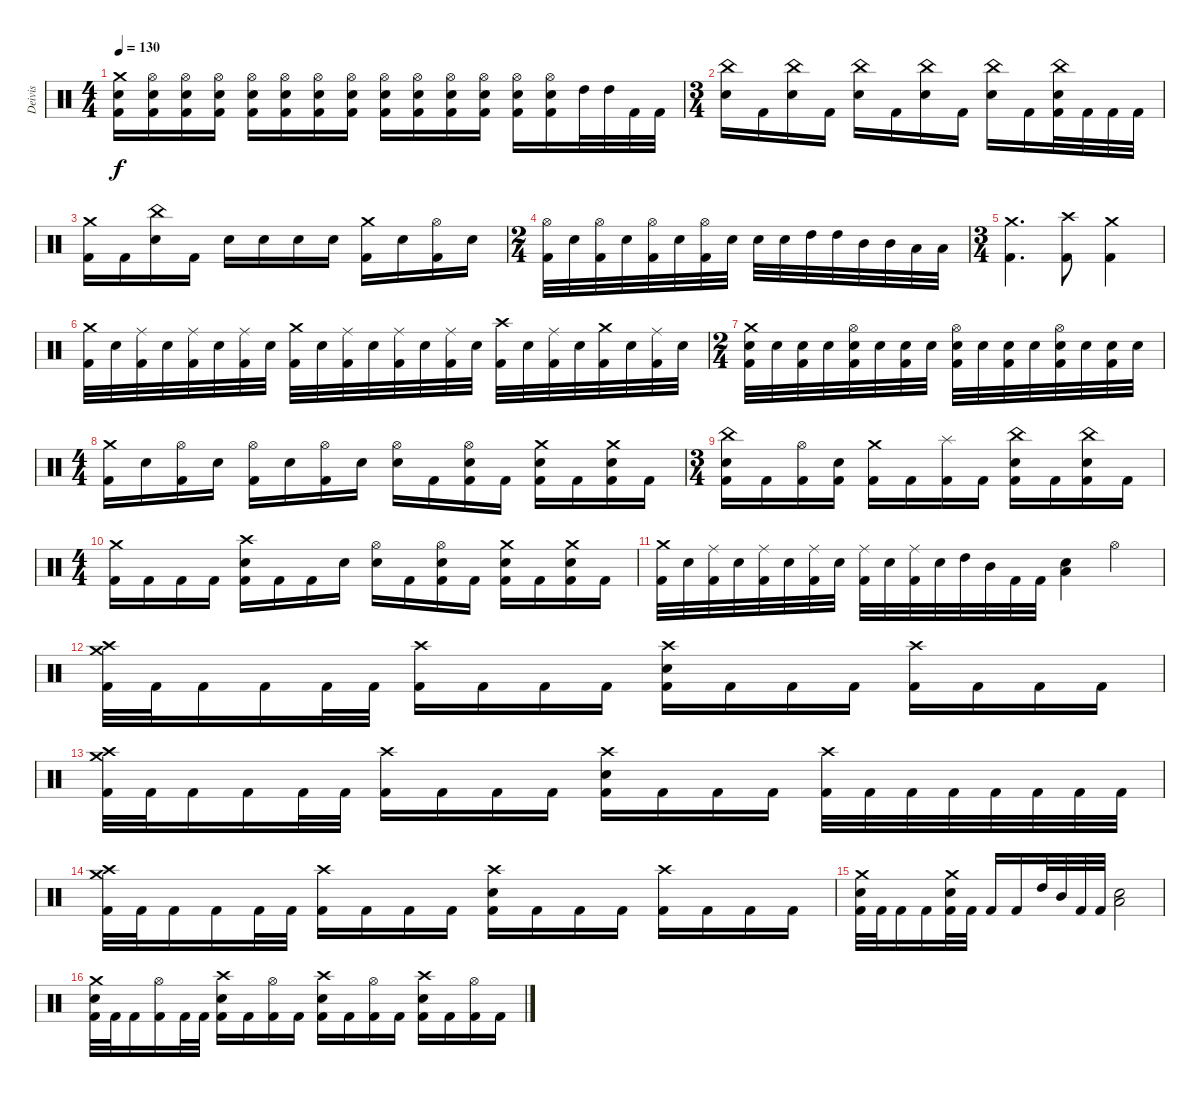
\track ("Deivis" "Deivis") {instrument percussion}
\staff {score}
\articulation defaults
\ts (4 4)
\tempo 130
\clef neutral
\ks c
("Crash medium (hit)" "Electric Snare (hit)" "Kick (hit) 2").16{dy f} ("Hi-Hat (open)" "Electric Snare (hit)" "Kick (hit) 2").16 ("Hi-Hat (open)" "Electric Snare (hit)" "Kick (hit) 2").16 ("Hi-Hat (open)" "Electric Snare (hit)" "Kick (hit) 2").16 ("Hi-Hat (open)" "Electric Snare (hit)" "Kick (hit) 2").16 ("Hi-Hat (open)" "Electric Snare (hit)" "Kick (hit) 2").16 ("Hi-Hat (open)" "Electric Snare (hit)" "Kick (hit) 2").16 ("Hi-Hat (open)" "Electric Snare (hit)" "Kick (hit) 2").16 ("Hi-Hat (open)" "Electric Snare (hit)" "Kick (hit) 2").16 ("Hi-Hat (open)" "Electric Snare (hit)" "Kick (hit) 2").16 ("Hi-Hat (open)" "Electric Snare (hit)" "Kick (hit) 2").16 ("Hi-Hat (open)" "Electric Snare (hit)" "Kick (hit) 2").16 ("Hi-Hat (open)" "Electric Snare (hit)" "Kick (hit) 2").16 ("Hi-Hat (open)" "Electric Snare (hit)" "Kick (hit) 2").16 "High Tom (hit)".32 "High Tom (hit)".32 "Kick (hit) 2".32 "Kick (hit) 2".32 |
\ts (3 4)
("China (hit)" "Electric Snare (hit)").16 "Kick (hit) 2".16 ("China (hit)" "Electric Snare (hit)").16 "Kick (hit) 2".16 ("China (hit)" "Electric Snare (hit)").16 "Kick (hit) 2".16 ("China (hit)" "Electric Snare (hit)").16 "Kick (hit) 2".16 ("China (hit)" "Electric Snare (hit)").16 "Kick (hit) 2".16 ("China (hit)" "Electric Snare (hit)" "Kick (hit) 2").32 "Kick (hit) 2".32 "Kick (hit) 2".32 "Kick (hit) 2".32 |
("Crash medium (hit)" "Kick (hit) 2").16 "Kick (hit) 2".16 ("China (hit)" "Electric Snare (hit)").16 "Kick (hit) 2".16 "Electric Snare (hit)".16 "Electric Snare (hit)".16 "Electric Snare (hit)".16 "Electric Snare (hit)".16 ("Crash medium (hit)" "Kick (hit) 2").16 "Electric Snare (hit)".16 ("Hi-Hat (open)" "Kick (hit) 2").16 "Electric Snare (hit)".16 |
\ts (2 4)
("Hi-Hat (open)" "Kick (hit) 2").32 "Electric Snare (hit)".32 ("Hi-Hat (open)" "Kick (hit) 2").32 "Electric Snare (hit)".32 ("Hi-Hat (open)" "Kick (hit) 2").32 "Electric Snare (hit)".32 ("Hi-Hat (open)" "Kick (hit) 2").32 "Electric Snare (hit)".32 "Electric Snare (hit)".32 "Electric Snare (hit)".32 "High Tom (hit)".32 "High Tom (hit)".32 "Mid Tom (hit)".32 "Mid Tom (hit)".32 "Low Tom (hit)".32 "Low Tom (hit)".32 |
\ts (3 4)
("Crash medium (hit)" "Kick (hit) 2").4{d} ("Crash high (hit)" "Kick (hit) 2").8 ("Crash medium (hit)" "Kick (hit) 2").4 |
("Crash medium (hit)" "Kick (hit) 2").32 "Electric Snare (hit)".32 ("Ride (middle)" "Kick (hit) 2").32 "Electric Snare (hit)".32 ("Ride (middle)" "Kick (hit) 2").32 "Electric Snare (hit)".32 ("Ride (middle)" "Kick (hit) 2").32 "Electric Snare (hit)".32 ("Crash medium (hit)" "Kick (hit) 2").32 "Electric Snare (hit)".32 ("Ride (middle)" "Kick (hit) 2").32 "Electric Snare (hit)".32 ("Ride (middle)" "Kick (hit) 2").32 "Electric Snare (hit)".32 ("Ride (middle)" "Kick (hit) 2").32 "Electric Snare (hit)".32 ("Crash high (hit)" "Kick (hit) 2").32 "Electric Snare (hit)".32 ("Ride (middle)" "Kick (hit) 2").32 "Electric Snare (hit)".32 ("Crash medium (hit)" "Kick (hit) 2").32 "Electric Snare (hit)".32 ("Ride (middle)" "Kick (hit) 2").32 "Electric Snare (hit)".32 |
\ts (2 4)
("Crash medium (hit)" "Electric Snare (hit)" "Kick (hit) 2").32 "Electric Snare (hit)".32 ("Electric Snare (hit)" "Kick (hit) 2").32 "Electric Snare (hit)".32 ("Hi-Hat (open)" "Electric Snare (hit)" "Kick (hit) 2").32 "Electric Snare (hit)".32 ("Electric Snare (hit)" "Kick (hit) 2").32 "Electric Snare (hit)".32 ("Hi-Hat (open)" "Electric Snare (hit)" "Kick (hit) 2").32 "Electric Snare (hit)".32 ("Electric Snare (hit)" "Kick (hit) 2").32 "Electric Snare (hit)".32 ("Hi-Hat (open)" "Electric Snare (hit)" "Kick (hit) 2").32 "Electric Snare (hit)".32 ("Electric Snare (hit)" "Kick (hit) 2").32 "Electric Snare (hit)".32 |
\ts (4 4)
("Crash medium (hit)" "Kick (hit) 2").16 "Electric Snare (hit)".16 ("Hi-Hat (open)" "Kick (hit) 2").16 "Electric Snare (hit)".16 ("Hi-Hat (open)" "Kick (hit) 2").16 "Electric Snare (hit)".16 ("Hi-Hat (open)" "Kick (hit) 2").16 "Electric Snare (hit)".16 ("Hi-Hat (open)" "Electric Snare (hit)").16 "Kick (hit) 2".16 ("Hi-Hat (open)" "Electric Snare (hit)" "Kick (hit) 2").16 "Kick (hit) 2".16 ("Crash medium (hit)" "Electric Snare (hit)" "Kick (hit) 2").16 "Kick (hit) 2".16 ("Crash medium (hit)" "Electric Snare (hit)" "Kick (hit) 2").16 "Kick (hit) 2".16 |
\ts (3 4)
("China (hit)" "Electric Snare (hit)" "Kick (hit) 2").16 "Kick (hit) 2".16 ("Hi-Hat (open)" "Kick (hit) 2").16 ("Electric Snare (hit)" "Kick (hit) 2").16 ("Crash medium (hit)" "Kick (hit) 2").16 "Kick (hit) 2".16 ("Splash (hit)" "Kick (hit) 2").16 "Kick (hit) 2".16 ("China (hit)" "Electric Snare (hit)" "Kick (hit) 2").16 "Kick (hit) 2".16 ("China (hit)" "Electric Snare (hit)" "Kick (hit) 2").16 "Kick (hit) 2".16 |
\ts (4 4)
("Crash medium (hit)" "Kick (hit) 2").16 "Kick (hit) 2".16 "Kick (hit) 2".16 "Kick (hit) 2".16 ("Crash high (hit)" "Electric Snare (hit)" "Kick (hit) 2").16 "Kick (hit) 2".16 "Kick (hit) 2".16 "Electric Snare (hit)".16 ("Hi-Hat (open)" "Electric Snare (hit)").16 "Kick (hit) 2".16 ("Hi-Hat (open)" "Electric Snare (hit)" "Kick (hit) 2").16 "Kick (hit) 2".16 ("Crash medium (hit)" "Electric Snare (hit)" "Kick (hit) 2").16 "Kick (hit) 2".16 ("Crash medium (hit)" "Electric Snare (hit)" "Kick (hit) 2").16 "Kick (hit) 2".16 |
("Crash medium (hit)" "Kick (hit) 2").32 "Electric Snare (hit)".32 ("Ride (middle)" "Kick (hit) 2").32 "Electric Snare (hit)".32 ("Ride (middle)" "Kick (hit) 2").32 "Electric Snare (hit)".32 ("Ride (middle)" "Kick (hit) 2").32 "Electric Snare (hit)".32 ("Ride (middle)" "Kick (hit) 2").32 "Electric Snare (hit)".32 ("Ride (middle)" "Kick (hit) 2").32 "Electric Snare (hit)".32 "High Tom (hit)".32 "Mid Tom (hit)".32 "Kick (hit) 2".32 "Kick (hit) 2".32 ("Low Floor Tom (hit)" "Electric Snare (hit)").4 "Hi-Hat (open)".4 |
("Crash medium (hit)" "Crash high (hit)" "Kick (hit) 2").32 "Kick (hit) 2".32 "Kick (hit) 2".16 "Kick (hit) 2".16 "Kick (hit) 2".32 "Kick (hit) 2".32 ("Crash high (hit)" "Kick (hit) 2").16 "Kick (hit) 2".16 "Kick (hit) 2".16 "Kick (hit) 2".16 ("Crash high (hit)" "Electric Snare (hit)" "Kick (hit) 2").16 "Kick (hit) 2".16 "Kick (hit) 2".16 "Kick (hit) 2".16 ("Crash high (hit)" "Kick (hit) 2").16 "Kick (hit) 2".16 "Kick (hit) 2".16 "Kick (hit) 2".16 |
("Crash medium (hit)" "Crash high (hit)" "Kick (hit) 2").32 "Kick (hit) 2".32 "Kick (hit) 2".16 "Kick (hit) 2".16 "Kick (hit) 2".32 "Kick (hit) 2".32 ("Crash high (hit)" "Kick (hit) 2").16 "Kick (hit) 2".16 "Kick (hit) 2".16 "Kick (hit) 2".16 ("Crash high (hit)" "Electric Snare (hit)" "Kick (hit) 2").16 "Kick (hit) 2".16 "Kick (hit) 2".16 "Kick (hit) 2".16 ("Crash high (hit)" "Kick (hit) 2").32 "Kick (hit) 2".32 "Kick (hit) 2".32 "Kick (hit) 2".32 "Kick (hit) 2".32 "Kick (hit) 2".32 "Kick (hit) 2".32 "Kick (hit) 2".32 |
("Crash medium (hit)" "Crash high (hit)" "Kick (hit) 2").32 "Kick (hit) 2".32 "Kick (hit) 2".16 "Kick (hit) 2".16 "Kick (hit) 2".32 "Kick (hit) 2".32 ("Crash high (hit)" "Kick (hit) 2").16 "Kick (hit) 2".16 "Kick (hit) 2".16 "Kick (hit) 2".16 ("Crash high (hit)" "Electric Snare (hit)" "Kick (hit) 2").16 "Kick (hit) 2".16 "Kick (hit) 2".16 "Kick (hit) 2".16 ("Crash high (hit)" "Kick (hit) 2").16 "Kick (hit) 2".16 "Kick (hit) 2".16 "Kick (hit) 2".16 |
("Crash medium (hit)" "Electric Snare (hit)" "Kick (hit) 2").32 "Kick (hit) 2".32 "Kick (hit) 2".16 "Kick (hit) 2".16 ("Crash medium (hit)" "Electric Snare (hit)" "Kick (hit) 2").32 "Kick (hit) 2".32 "Kick (hit) 2".16 "Kick (hit) 2".16 "High Tom (hit)".32 "Mid Tom (hit)".32 "Kick (hit) 2".32 "Kick (hit) 2".32 ("Low Floor Tom (hit)" "Electric Snare (hit)").2 |
("Crash medium (hit)" "Electric Snare (hit)" "Kick (hit) 2").32 "Kick (hit) 2".32 "Kick (hit) 2".16 ("Hi-Hat (open)" "Kick (hit) 2").16 "Kick (hit) 2".32 "Kick (hit) 2".32 ("Crash high (hit)" "Electric Snare (hit)" "Kick (hit) 2").16 "Kick (hit) 2".16 ("Hi-Hat (open)" "Kick (hit) 2").16 "Kick (hit) 2".16 ("Crash high (hit)" "Electric Snare (hit)" "Kick (hit) 2").16 "Kick (hit) 2".16 ("Hi-Hat (open)" "Kick (hit) 2").16 "Kick (hit) 2".16 ("Crash high (hit)" "Electric Snare (hit)" "Kick (hit) 2").16 "Kick (hit) 2".16 ("Hi-Hat (open)" "Kick (hit) 2").16 "Kick (hit) 2".16
